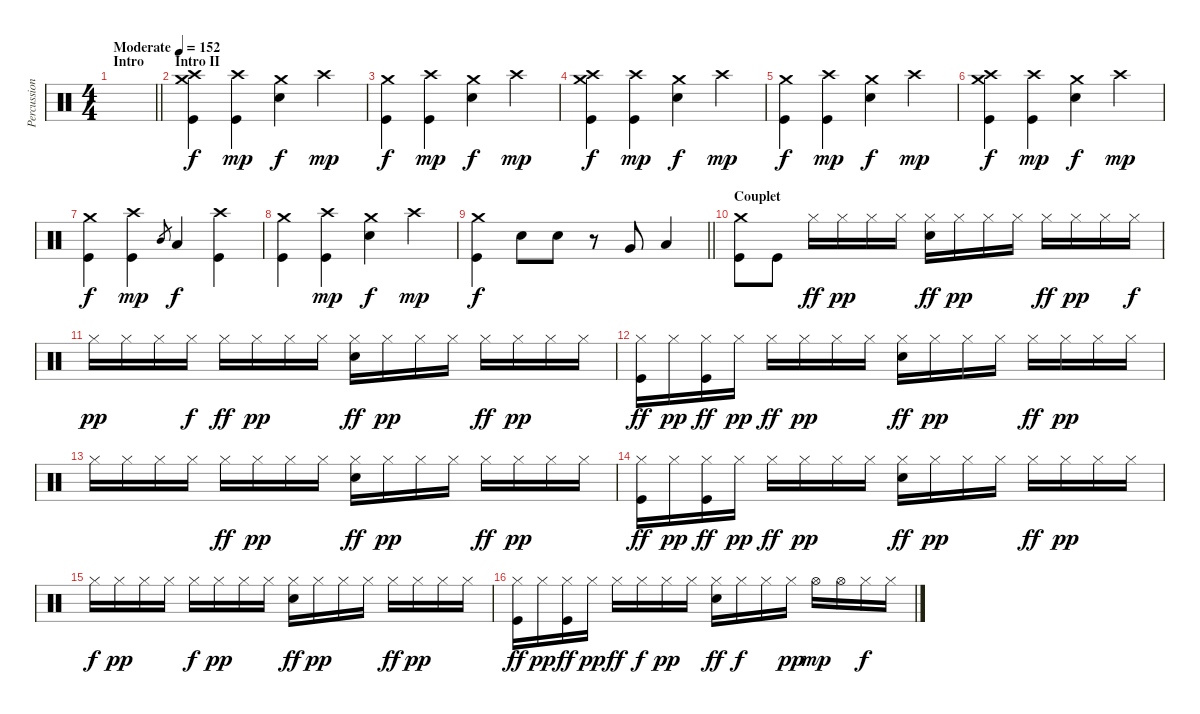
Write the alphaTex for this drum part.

\track ("Percussions" "Percussion") {instrument percussion}
\staff {score}
\articulation defaults
\ts (4 4)
\section ("" "Intro")
\tempo (152 "Moderate")
\clef neutral
\barLineRight lightlight
\ks c
|
\section ("" "Intro II")
("Crash high (hit)" "Crash medium (hit)" "Kick (hit)").4 ("Crash high (hit)" "Kick (hit)").4{dy mp} ("Crash medium (hit)" "Snare (hit) 2").4{dy f} "Crash high (hit)".4{dy mp} |
("Crash medium (hit)" "Kick (hit)").4{dy f} ("Crash high (hit)" "Kick (hit)").4{dy mp} ("Crash medium (hit)" "Snare (hit) 2").4{dy f} "Crash high (hit)".4{dy mp} |
("Crash high (hit)" "Crash medium (hit)" "Kick (hit)").4{dy f} ("Crash high (hit)" "Kick (hit)").4{dy mp} ("Crash medium (hit)" "Snare (hit) 2").4{dy f} "Crash high (hit)".4{dy mp} |
("Crash medium (hit)" "Kick (hit)").4{dy f} ("Crash high (hit)" "Kick (hit)").4{dy mp} ("Crash medium (hit)" "Snare (hit) 2").4{dy f} "Crash high (hit)".4{dy mp} |
("Crash high (hit)" "Crash medium (hit)" "Kick (hit)").4{dy f} ("Crash high (hit)" "Kick (hit)").4{dy mp} ("Crash medium (hit)" "Snare (hit) 2").4{dy f} "Crash high (hit)".4{dy mp} |
("Crash medium (hit)" "Kick (hit)").4{dy f} ("Crash high (hit)" "Kick (hit)").4{dy mp} "Mid Tom (hit)".8{gr} "Low Tom (hit)".4{dy f} ("Crash high (hit)" "Kick (hit)").4 |
("Crash medium (hit)" "Kick (hit)").4 ("Crash high (hit)" "Kick (hit)").4{dy mp} ("Crash medium (hit)" "Snare (hit) 2").4{dy f} "Crash high (hit)".4{dy mp} |
\barLineRight lightlight
("Crash medium (hit)" "Kick (hit)").4{dy f} "Snare (hit) 2".8 "Snare (hit) 2".8 r.8 "Very Low Tom (hit)".8 "Low Tom (hit)".4 |
\section ("" "Couplet")
("Crash medium (hit)" "Kick (hit)").8 "Kick (hit)".8 "Hi-Hat (closed)".16{dy ff} "Hi-Hat (closed)".16{dy pp} "Hi-Hat (closed)".16 "Hi-Hat (closed)".16 ("Hi-Hat (closed)" "Snare (hit) 2").16{dy ff} "Hi-Hat (closed)".16{dy pp} "Hi-Hat (closed)".16 "Hi-Hat (closed)".16 "Hi-Hat (closed)".16{dy ff} "Hi-Hat (closed)".16{dy pp} "Hi-Hat (closed)".16 "Hi-Hat (closed)".16{dy f} |
"Hi-Hat (closed)".16{dy pp} "Hi-Hat (closed)".16 "Hi-Hat (closed)".16 "Hi-Hat (closed)".16{dy f} "Hi-Hat (closed)".16{dy ff} "Hi-Hat (closed)".16{dy pp} "Hi-Hat (closed)".16 "Hi-Hat (closed)".16 ("Hi-Hat (closed)" "Snare (hit) 2").16{dy ff} "Hi-Hat (closed)".16{dy pp} "Hi-Hat (closed)".16 "Hi-Hat (closed)".16 "Hi-Hat (closed)".16{dy ff} "Hi-Hat (closed)".16{dy pp} "Hi-Hat (closed)".16 "Hi-Hat (closed)".16 |
("Hi-Hat (closed)" "Kick (hit)").16{dy ff} "Hi-Hat (closed)".16{dy pp} ("Hi-Hat (closed)" "Kick (hit)").16{dy ff} "Hi-Hat (closed)".16{dy pp} "Hi-Hat (closed)".16{dy ff} "Hi-Hat (closed)".16{dy pp} "Hi-Hat (closed)".16 "Hi-Hat (closed)".16 ("Hi-Hat (closed)" "Snare (hit) 2").16{dy ff} "Hi-Hat (closed)".16{dy pp} "Hi-Hat (closed)".16 "Hi-Hat (closed)".16 "Hi-Hat (closed)".16{dy ff} "Hi-Hat (closed)".16{dy pp} "Hi-Hat (closed)".16 "Hi-Hat (closed)".16 |
"Hi-Hat (closed)".16 "Hi-Hat (closed)".16 "Hi-Hat (closed)".16 "Hi-Hat (closed)".16 "Hi-Hat (closed)".16{dy ff} "Hi-Hat (closed)".16{dy pp} "Hi-Hat (closed)".16 "Hi-Hat (closed)".16 ("Hi-Hat (closed)" "Snare (hit) 2").16{dy ff} "Hi-Hat (closed)".16{dy pp} "Hi-Hat (closed)".16 "Hi-Hat (closed)".16 "Hi-Hat (closed)".16{dy ff} "Hi-Hat (closed)".16{dy pp} "Hi-Hat (closed)".16 "Hi-Hat (closed)".16 |
("Hi-Hat (closed)" "Kick (hit)").16{dy ff} "Hi-Hat (closed)".16{dy pp} ("Hi-Hat (closed)" "Kick (hit)").16{dy ff} "Hi-Hat (closed)".16{dy pp} "Hi-Hat (closed)".16{dy ff} "Hi-Hat (closed)".16{dy pp} "Hi-Hat (closed)".16 "Hi-Hat (closed)".16 ("Hi-Hat (closed)" "Snare (hit) 2").16{dy ff} "Hi-Hat (closed)".16{dy pp} "Hi-Hat (closed)".16 "Hi-Hat (closed)".16 "Hi-Hat (closed)".16{dy ff} "Hi-Hat (closed)".16{dy pp} "Hi-Hat (closed)".16 "Hi-Hat (closed)".16 |
"Hi-Hat (closed)".16{dy f} "Hi-Hat (closed)".16{dy pp} "Hi-Hat (closed)".16 "Hi-Hat (closed)".16 "Hi-Hat (closed)".16{dy f} "Hi-Hat (closed)".16{dy pp} "Hi-Hat (closed)".16 "Hi-Hat (closed)".16 ("Hi-Hat (closed)" "Snare (hit) 2").16{dy ff} "Hi-Hat (closed)".16{dy pp} "Hi-Hat (closed)".16 "Hi-Hat (closed)".16 "Hi-Hat (closed)".16{dy ff} "Hi-Hat (closed)".16{dy pp} "Hi-Hat (closed)".16 "Hi-Hat (closed)".16 |
("Hi-Hat (closed)" "Kick (hit)").16{dy ff} "Hi-Hat (closed)".16{dy pp} ("Hi-Hat (closed)" "Kick (hit)").16{dy ff} "Hi-Hat (closed)".16{dy pp} "Hi-Hat (closed)".16{dy ff} "Hi-Hat (closed)".16{dy f} "Hi-Hat (closed)".16{dy pp} "Hi-Hat (closed)".16 ("Hi-Hat (closed)" "Snare (hit) 2").16{dy ff} "Hi-Hat (closed)".16{dy f} "Hi-Hat (closed)".16 "Hi-Hat (closed)".16{dy pp} "Hi-Hat (open)".16{dy mp} "Hi-Hat (open)".16 "Hi-Hat (closed)".16{dy f} "Hi-Hat (closed)".16
